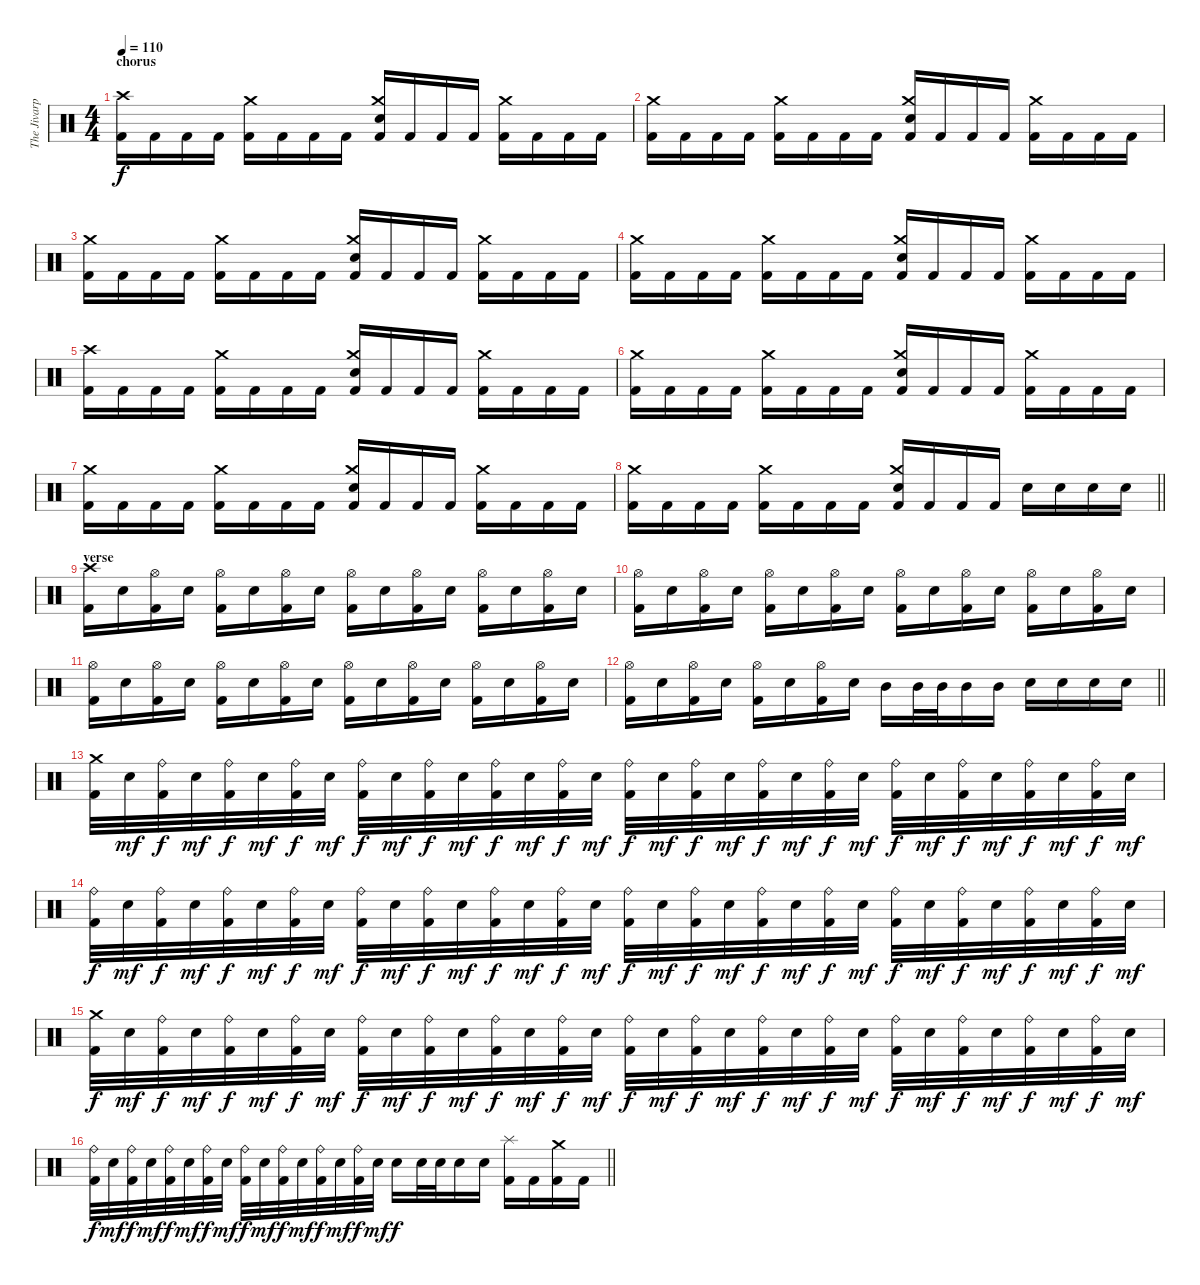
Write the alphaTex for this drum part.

\track ("The Jivarp" "The Jivarp") {instrument percussion}
\staff {score}
\articulation defaults
\ts (4 4)
\section ("" "chorus")
\tempo 110
\clef neutral
\ks c
("Crash high (hit)" "Kick (hit) 2").16{dy f} "Kick (hit) 2".16 "Kick (hit) 2".16 "Kick (hit) 2".16 ("Crash medium (hit)" "Kick (hit) 2").16 "Kick (hit) 2".16 "Kick (hit) 2".16 "Kick (hit) 2".16 ("Crash medium (hit)" "Electric Snare (hit)" "Kick (hit) 2").16 "Kick (hit) 2".16 "Kick (hit) 2".16 "Kick (hit) 2".16 ("Crash medium (hit)" "Kick (hit) 2").16 "Kick (hit) 2".16 "Kick (hit) 2".16 "Kick (hit) 2".16 |
("Crash medium (hit)" "Kick (hit) 2").16 "Kick (hit) 2".16 "Kick (hit) 2".16 "Kick (hit) 2".16 ("Crash medium (hit)" "Kick (hit) 2").16 "Kick (hit) 2".16 "Kick (hit) 2".16 "Kick (hit) 2".16 ("Crash medium (hit)" "Electric Snare (hit)" "Kick (hit) 2").16 "Kick (hit) 2".16 "Kick (hit) 2".16 "Kick (hit) 2".16 ("Crash medium (hit)" "Kick (hit) 2").16 "Kick (hit) 2".16 "Kick (hit) 2".16 "Kick (hit) 2".16 |
("Crash medium (hit)" "Kick (hit) 2").16 "Kick (hit) 2".16 "Kick (hit) 2".16 "Kick (hit) 2".16 ("Crash medium (hit)" "Kick (hit) 2").16 "Kick (hit) 2".16 "Kick (hit) 2".16 "Kick (hit) 2".16 ("Crash medium (hit)" "Electric Snare (hit)" "Kick (hit) 2").16 "Kick (hit) 2".16 "Kick (hit) 2".16 "Kick (hit) 2".16 ("Crash medium (hit)" "Kick (hit) 2").16 "Kick (hit) 2".16 "Kick (hit) 2".16 "Kick (hit) 2".16 |
("Crash medium (hit)" "Kick (hit) 2").16 "Kick (hit) 2".16 "Kick (hit) 2".16 "Kick (hit) 2".16 ("Crash medium (hit)" "Kick (hit) 2").16 "Kick (hit) 2".16 "Kick (hit) 2".16 "Kick (hit) 2".16 ("Crash medium (hit)" "Electric Snare (hit)" "Kick (hit) 2").16 "Kick (hit) 2".16 "Kick (hit) 2".16 "Kick (hit) 2".16 ("Crash medium (hit)" "Kick (hit) 2").16 "Kick (hit) 2".16 "Kick (hit) 2".16 "Kick (hit) 2".16 |
("Crash high (hit)" "Kick (hit) 2").16 "Kick (hit) 2".16 "Kick (hit) 2".16 "Kick (hit) 2".16 ("Crash medium (hit)" "Kick (hit) 2").16 "Kick (hit) 2".16 "Kick (hit) 2".16 "Kick (hit) 2".16 ("Crash medium (hit)" "Electric Snare (hit)" "Kick (hit) 2").16 "Kick (hit) 2".16 "Kick (hit) 2".16 "Kick (hit) 2".16 ("Crash medium (hit)" "Kick (hit) 2").16 "Kick (hit) 2".16 "Kick (hit) 2".16 "Kick (hit) 2".16 |
("Crash medium (hit)" "Kick (hit) 2").16 "Kick (hit) 2".16 "Kick (hit) 2".16 "Kick (hit) 2".16 ("Crash medium (hit)" "Kick (hit) 2").16 "Kick (hit) 2".16 "Kick (hit) 2".16 "Kick (hit) 2".16 ("Crash medium (hit)" "Electric Snare (hit)" "Kick (hit) 2").16 "Kick (hit) 2".16 "Kick (hit) 2".16 "Kick (hit) 2".16 ("Crash medium (hit)" "Kick (hit) 2").16 "Kick (hit) 2".16 "Kick (hit) 2".16 "Kick (hit) 2".16 |
("Crash medium (hit)" "Kick (hit) 2").16 "Kick (hit) 2".16 "Kick (hit) 2".16 "Kick (hit) 2".16 ("Crash medium (hit)" "Kick (hit) 2").16 "Kick (hit) 2".16 "Kick (hit) 2".16 "Kick (hit) 2".16 ("Crash medium (hit)" "Electric Snare (hit)" "Kick (hit) 2").16 "Kick (hit) 2".16 "Kick (hit) 2".16 "Kick (hit) 2".16 ("Crash medium (hit)" "Kick (hit) 2").16 "Kick (hit) 2".16 "Kick (hit) 2".16 "Kick (hit) 2".16 |
\barLineRight lightlight
("Crash medium (hit)" "Kick (hit) 2").16 "Kick (hit) 2".16 "Kick (hit) 2".16 "Kick (hit) 2".16 ("Crash medium (hit)" "Kick (hit) 2").16 "Kick (hit) 2".16 "Kick (hit) 2".16 "Kick (hit) 2".16 ("Crash medium (hit)" "Electric Snare (hit)" "Kick (hit) 2").16 "Kick (hit) 2".16 "Kick (hit) 2".16 "Kick (hit) 2".16 "Electric Snare (hit)".16 "Electric Snare (hit)".16 "Electric Snare (hit)".16 "Electric Snare (hit)".16 |
\section ("" "verse")
("Crash high (hit)" "Kick (hit) 2").16 "Electric Snare (hit)".16 ("Hi-Hat (open)" "Kick (hit) 2").16 "Electric Snare (hit)".16 ("Hi-Hat (open)" "Kick (hit) 2").16 "Electric Snare (hit)".16 ("Hi-Hat (open)" "Kick (hit) 2").16 "Electric Snare (hit)".16 ("Hi-Hat (open)" "Kick (hit) 2").16 "Electric Snare (hit)".16 ("Hi-Hat (open)" "Kick (hit) 2").16 "Electric Snare (hit)".16 ("Hi-Hat (open)" "Kick (hit) 2").16 "Electric Snare (hit)".16 ("Hi-Hat (open)" "Kick (hit) 2").16 "Electric Snare (hit)".16 |
("Hi-Hat (open)" "Kick (hit) 2").16 "Electric Snare (hit)".16 ("Hi-Hat (open)" "Kick (hit) 2").16 "Electric Snare (hit)".16 ("Hi-Hat (open)" "Kick (hit) 2").16 "Electric Snare (hit)".16 ("Hi-Hat (open)" "Kick (hit) 2").16 "Electric Snare (hit)".16 ("Hi-Hat (open)" "Kick (hit) 2").16 "Electric Snare (hit)".16 ("Hi-Hat (open)" "Kick (hit) 2").16 "Electric Snare (hit)".16 ("Hi-Hat (open)" "Kick (hit) 2").16 "Electric Snare (hit)".16 ("Hi-Hat (open)" "Kick (hit) 2").16 "Electric Snare (hit)".16 |
("Hi-Hat (open)" "Kick (hit) 2").16 "Electric Snare (hit)".16 ("Hi-Hat (open)" "Kick (hit) 2").16 "Electric Snare (hit)".16 ("Hi-Hat (open)" "Kick (hit) 2").16 "Electric Snare (hit)".16 ("Hi-Hat (open)" "Kick (hit) 2").16 "Electric Snare (hit)".16 ("Hi-Hat (open)" "Kick (hit) 2").16 "Electric Snare (hit)".16 ("Hi-Hat (open)" "Kick (hit) 2").16 "Electric Snare (hit)".16 ("Hi-Hat (open)" "Kick (hit) 2").16 "Electric Snare (hit)".16 ("Hi-Hat (open)" "Kick (hit) 2").16 "Electric Snare (hit)".16 |
\barLineRight lightlight
("Hi-Hat (open)" "Kick (hit) 2").16 "Electric Snare (hit)".16 ("Hi-Hat (open)" "Kick (hit) 2").16 "Electric Snare (hit)".16 ("Hi-Hat (open)" "Kick (hit) 2").16 "Electric Snare (hit)".16 ("Hi-Hat (open)" "Kick (hit) 2").16 "Electric Snare (hit)".16 "Mid Tom (hit)".16 "Mid Tom (hit)".32 "Mid Tom (hit)".32 "Mid Tom (hit)".16 "Mid Tom (hit)".16 "Electric Snare (hit)".16 "Electric Snare (hit)".16 "Electric Snare (hit)".16 "Electric Snare (hit)".16 |
\section ("" "")
("Crash medium (hit)" "Kick (hit) 2").32 "Electric Snare (hit)".32{dy mf} ("Ride (bell)" "Kick (hit) 2").32{dy f} "Electric Snare (hit)".32{dy mf} ("Ride (bell)" "Kick (hit) 2").32{dy f} "Electric Snare (hit)".32{dy mf} ("Ride (bell)" "Kick (hit) 2").32{dy f} "Electric Snare (hit)".32{dy mf} ("Ride (bell)" "Kick (hit) 2").32{dy f} "Electric Snare (hit)".32{dy mf} ("Ride (bell)" "Kick (hit) 2").32{dy f} "Electric Snare (hit)".32{dy mf} ("Ride (bell)" "Kick (hit) 2").32{dy f} "Electric Snare (hit)".32{dy mf} ("Ride (bell)" "Kick (hit) 2").32{dy f} "Electric Snare (hit)".32{dy mf} ("Ride (bell)" "Kick (hit) 2").32{dy f} "Electric Snare (hit)".32{dy mf} ("Ride (bell)" "Kick (hit) 2").32{dy f} "Electric Snare (hit)".32{dy mf} ("Ride (bell)" "Kick (hit) 2").32{dy f} "Electric Snare (hit)".32{dy mf} ("Ride (bell)" "Kick (hit) 2").32{dy f} "Electric Snare (hit)".32{dy mf} ("Ride (bell)" "Kick (hit) 2").32{dy f} "Electric Snare (hit)".32{dy mf} ("Ride (bell)" "Kick (hit) 2").32{dy f} "Electric Snare (hit)".32{dy mf} ("Ride (bell)" "Kick (hit) 2").32{dy f} "Electric Snare (hit)".32{dy mf} ("Ride (bell)" "Kick (hit) 2").32{dy f} "Electric Snare (hit)".32{dy mf} |
("Ride (bell)" "Kick (hit) 2").32{dy f} "Electric Snare (hit)".32{dy mf} ("Ride (bell)" "Kick (hit) 2").32{dy f} "Electric Snare (hit)".32{dy mf} ("Ride (bell)" "Kick (hit) 2").32{dy f} "Electric Snare (hit)".32{dy mf} ("Ride (bell)" "Kick (hit) 2").32{dy f} "Electric Snare (hit)".32{dy mf} ("Ride (bell)" "Kick (hit) 2").32{dy f} "Electric Snare (hit)".32{dy mf} ("Ride (bell)" "Kick (hit) 2").32{dy f} "Electric Snare (hit)".32{dy mf} ("Ride (bell)" "Kick (hit) 2").32{dy f} "Electric Snare (hit)".32{dy mf} ("Ride (bell)" "Kick (hit) 2").32{dy f} "Electric Snare (hit)".32{dy mf} ("Ride (bell)" "Kick (hit) 2").32{dy f} "Electric Snare (hit)".32{dy mf} ("Ride (bell)" "Kick (hit) 2").32{dy f} "Electric Snare (hit)".32{dy mf} ("Ride (bell)" "Kick (hit) 2").32{dy f} "Electric Snare (hit)".32{dy mf} ("Ride (bell)" "Kick (hit) 2").32{dy f} "Electric Snare (hit)".32{dy mf} ("Ride (bell)" "Kick (hit) 2").32{dy f} "Electric Snare (hit)".32{dy mf} ("Ride (bell)" "Kick (hit) 2").32{dy f} "Electric Snare (hit)".32{dy mf} ("Ride (bell)" "Kick (hit) 2").32{dy f} "Electric Snare (hit)".32{dy mf} ("Ride (bell)" "Kick (hit) 2").32{dy f} "Electric Snare (hit)".32{dy mf} |
("Crash medium (hit)" "Kick (hit) 2").32{dy f} "Electric Snare (hit)".32{dy mf} ("Ride (bell)" "Kick (hit) 2").32{dy f} "Electric Snare (hit)".32{dy mf} ("Ride (bell)" "Kick (hit) 2").32{dy f} "Electric Snare (hit)".32{dy mf} ("Ride (bell)" "Kick (hit) 2").32{dy f} "Electric Snare (hit)".32{dy mf} ("Ride (bell)" "Kick (hit) 2").32{dy f} "Electric Snare (hit)".32{dy mf} ("Ride (bell)" "Kick (hit) 2").32{dy f} "Electric Snare (hit)".32{dy mf} ("Ride (bell)" "Kick (hit) 2").32{dy f} "Electric Snare (hit)".32{dy mf} ("Ride (bell)" "Kick (hit) 2").32{dy f} "Electric Snare (hit)".32{dy mf} ("Ride (bell)" "Kick (hit) 2").32{dy f} "Electric Snare (hit)".32{dy mf} ("Ride (bell)" "Kick (hit) 2").32{dy f} "Electric Snare (hit)".32{dy mf} ("Ride (bell)" "Kick (hit) 2").32{dy f} "Electric Snare (hit)".32{dy mf} ("Ride (bell)" "Kick (hit) 2").32{dy f} "Electric Snare (hit)".32{dy mf} ("Ride (bell)" "Kick (hit) 2").32{dy f} "Electric Snare (hit)".32{dy mf} ("Ride (bell)" "Kick (hit) 2").32{dy f} "Electric Snare (hit)".32{dy mf} ("Ride (bell)" "Kick (hit) 2").32{dy f} "Electric Snare (hit)".32{dy mf} ("Ride (bell)" "Kick (hit) 2").32{dy f} "Electric Snare (hit)".32{dy mf} |
\barLineRight lightlight
("Ride (bell)" "Kick (hit) 2").32{dy f} "Electric Snare (hit)".32{dy mf} ("Ride (bell)" "Kick (hit) 2").32{dy f} "Electric Snare (hit)".32{dy mf} ("Ride (bell)" "Kick (hit) 2").32{dy f} "Electric Snare (hit)".32{dy mf} ("Ride (bell)" "Kick (hit) 2").32{dy f} "Electric Snare (hit)".32{dy mf} ("Ride (bell)" "Kick (hit) 2").32{dy f} "Electric Snare (hit)".32{dy mf} ("Ride (bell)" "Kick (hit) 2").32{dy f} "Electric Snare (hit)".32{dy mf} ("Ride (bell)" "Kick (hit) 2").32{dy f} "Electric Snare (hit)".32{dy mf} ("Ride (bell)" "Kick (hit) 2").32{dy f} "Electric Snare (hit)".32{dy mf} "Electric Snare (hit)".16{dy f} "Electric Snare (hit)".32 "Electric Snare (hit)".32 "Electric Snare (hit)".16 "Electric Snare (hit)".16 ("Splash (hit)" "Kick (hit) 2").16 "Kick (hit) 2".16 ("Crash medium (hit)" "Kick (hit) 2").16 "Kick (hit) 2".16
